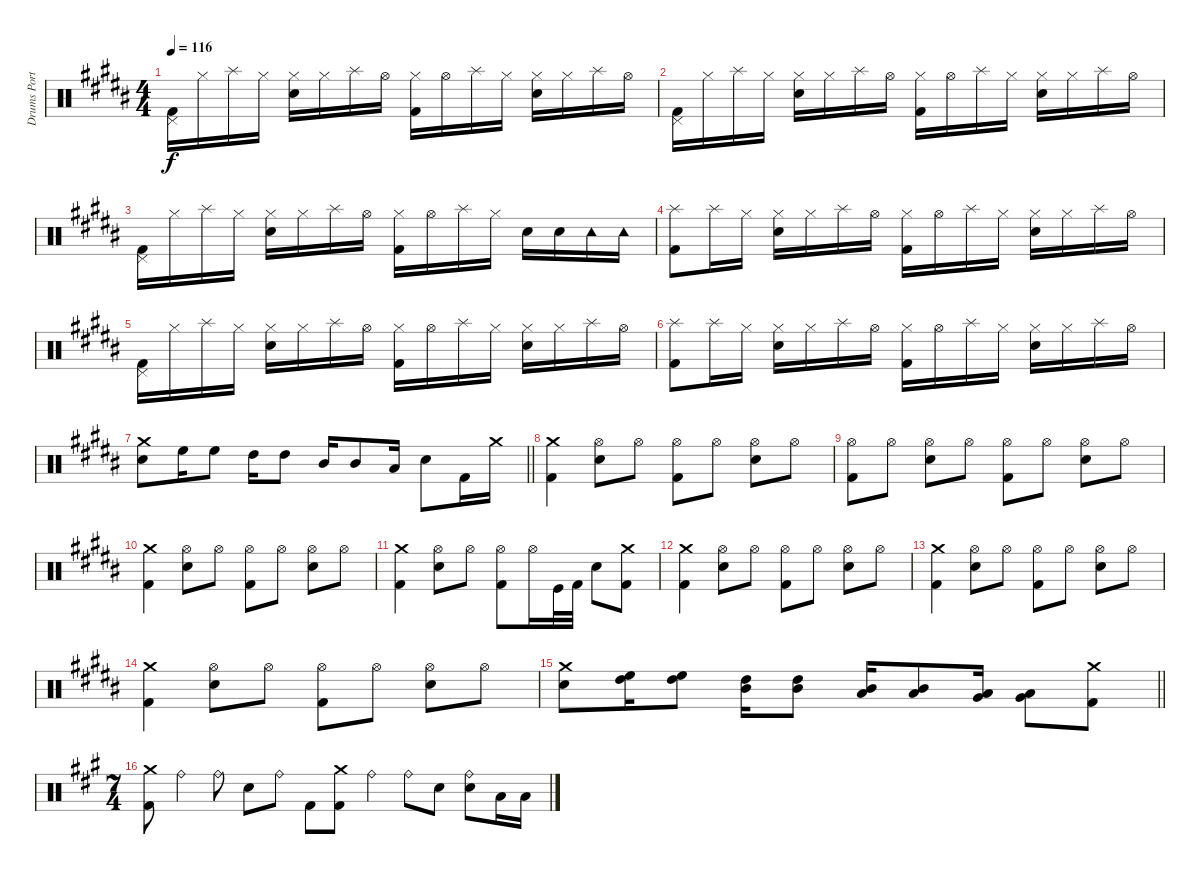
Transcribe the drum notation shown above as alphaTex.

\track ("Drums Portnoy" "Drums Port") {instrument percussion}
\staff {score}
\articulation defaults
\ts (4 4)
\tempo 116
\clef neutral
\ks g#minor
("Pedal Hi-Hat (hit)" "Kick (hit) 2").16{dy f} "Hi-Hat (closed)".16 "Splash (hit)".16 "Hi-Hat (closed)".16 ("Hi-Hat (closed)" "Snare (hit) 2").16 "Hi-Hat (closed)".16 "Splash (hit)".16 "Hi-Hat (open)".16 ("Hi-Hat (closed)" "Kick (hit) 2").16 "Hi-Hat (open)".16 "Splash (hit)".16 "Hi-Hat (closed)".16 ("Hi-Hat (closed)" "Snare (hit) 2").16 "Hi-Hat (closed)".16 "Splash (hit)".16 "Hi-Hat (open)".16 |
\ks b
("Pedal Hi-Hat (hit)" "Kick (hit) 2").16 "Hi-Hat (closed)".16 "Splash (hit)".16 "Hi-Hat (closed)".16 ("Hi-Hat (closed)" "Snare (hit) 2").16 "Hi-Hat (closed)".16 "Splash (hit)".16 "Hi-Hat (open)".16 ("Hi-Hat (closed)" "Kick (hit) 2").16 "Hi-Hat (open)".16 "Splash (hit)".16 "Hi-Hat (closed)".16 ("Hi-Hat (closed)" "Snare (hit) 2").16 "Hi-Hat (closed)".16 "Splash (hit)".16 "Hi-Hat (open)".16 |
\ks g#minor
("Pedal Hi-Hat (hit)" "Kick (hit) 2").16 "Hi-Hat (closed)".16 "Splash (hit)".16 "Hi-Hat (closed)".16 ("Hi-Hat (closed)" "Snare (hit) 2").16 "Hi-Hat (closed)".16 "Splash (hit)".16 "Hi-Hat (open)".16 ("Hi-Hat (closed)" "Kick (hit) 2").16 "Hi-Hat (open)".16 "Splash (hit)".16 "Hi-Hat (closed)".16 "Snare (hit) 2".16 "Snare (hit) 2".16 "Tambourine (hit)".16 "Tambourine (hit)".16 |
("Splash (hit)" "Kick (hit) 2").8 "Splash (hit)".16 "Hi-Hat (closed)".16 ("Hi-Hat (closed)" "Snare (hit) 2").16 "Hi-Hat (closed)".16 "Splash (hit)".16 "Hi-Hat (open)".16 ("Hi-Hat (closed)" "Kick (hit) 2").16 "Hi-Hat (open)".16 "Splash (hit)".16 "Hi-Hat (closed)".16 ("Hi-Hat (closed)" "Snare (hit) 2").16 "Hi-Hat (closed)".16 "Splash (hit)".16 "Hi-Hat (open)".16 |
("Pedal Hi-Hat (hit)" "Kick (hit) 2").16 "Hi-Hat (closed)".16 "Splash (hit)".16 "Hi-Hat (closed)".16 ("Hi-Hat (closed)" "Snare (hit) 2").16 "Hi-Hat (closed)".16 "Splash (hit)".16 "Hi-Hat (open)".16 ("Hi-Hat (closed)" "Kick (hit) 2").16 "Hi-Hat (open)".16 "Splash (hit)".16 "Hi-Hat (closed)".16 ("Hi-Hat (closed)" "Snare (hit) 2").16 "Hi-Hat (closed)".16 "Splash (hit)".16 "Hi-Hat (open)".16 |
("Splash (hit)" "Kick (hit) 2").8 "Splash (hit)".16 "Hi-Hat (closed)".16 ("Hi-Hat (closed)" "Snare (hit) 2").16 "Hi-Hat (closed)".16 "Splash (hit)".16 "Hi-Hat (open)".16 ("Hi-Hat (closed)" "Kick (hit) 2").16 "Hi-Hat (open)".16 "Splash (hit)".16 "Hi-Hat (closed)".16 ("Hi-Hat (closed)" "Snare (hit) 2").16 "Hi-Hat (closed)".16 "Splash (hit)".16 "Hi-Hat (open)".16 |
\barLineRight lightlight
("Crash medium (hit)" "Snare (hit) 2").8 "High Floor Tom (hit)".16 "High Floor Tom (hit)".8 "High Tom (hit)".16 "High Tom (hit)".8 "Mid Tom (hit)".16 "Mid Tom (hit)".8 "Low Tom (hit)".16 "Snare (hit) 2".8 "Kick (hit) 2".16 "Crash medium (hit)".16 |
("Crash medium (hit)" "Kick (hit) 2").4 ("Hi-Hat (open)" "Snare (hit) 2").8 "Hi-Hat (open)".8 ("Hi-Hat (open)" "Kick (hit) 2").8 "Hi-Hat (open)".8 ("Hi-Hat (open)" "Snare (hit) 2").8 "Hi-Hat (open)".8 |
("Hi-Hat (open)" "Kick (hit) 2").8 "Hi-Hat (open)".8 ("Hi-Hat (open)" "Snare (hit) 2").8 "Hi-Hat (open)".8 ("Hi-Hat (open)" "Kick (hit) 2").8 "Hi-Hat (open)".8 ("Hi-Hat (open)" "Snare (hit) 2").8 "Hi-Hat (open)".8 |
("Crash medium (hit)" "Kick (hit) 2").4 ("Hi-Hat (open)" "Snare (hit) 2").8 "Hi-Hat (open)".8 ("Hi-Hat (open)" "Kick (hit) 2").8 "Hi-Hat (open)".8 ("Hi-Hat (open)" "Snare (hit) 2").8 "Hi-Hat (open)".8 |
("Crash medium (hit)" "Kick (hit) 2").4 ("Hi-Hat (open)" "Snare (hit) 2").8 "Hi-Hat (open)".8 ("Hi-Hat (open)" "Kick (hit) 2").8 "Hi-Hat (open)".16 "Kick (hit)".32 "Kick (hit) 2".32 "Snare (hit) 2".8 ("Crash medium (hit)" "Kick (hit) 2").8 |
\ks b
("Crash medium (hit)" "Kick (hit) 2").4 ("Hi-Hat (open)" "Snare (hit) 2").8 "Hi-Hat (open)".8 ("Hi-Hat (open)" "Kick (hit) 2").8 "Hi-Hat (open)".8 ("Hi-Hat (open)" "Snare (hit) 2").8 "Hi-Hat (open)".8 |
\ks g#minor
("Crash medium (hit)" "Kick (hit) 2").4 ("Hi-Hat (open)" "Snare (hit) 2").8 "Hi-Hat (open)".8 ("Hi-Hat (open)" "Kick (hit) 2").8 "Hi-Hat (open)".8 ("Hi-Hat (open)" "Snare (hit) 2").8 "Hi-Hat (open)".8 |
("Crash medium (hit)" "Kick (hit) 2").4 ("Hi-Hat (open)" "Snare (hit) 2").8 "Hi-Hat (open)".8 ("Hi-Hat (open)" "Kick (hit) 2").8 "Hi-Hat (open)".8 ("Hi-Hat (open)" "Snare (hit) 2").8 "Hi-Hat (open)".8 |
\barLineRight lightlight
("Crash medium (hit)" "Snare (hit) 2").8 ("High Tom (hit)" "High Floor Tom (hit)").16 ("High Tom (hit)" "High Floor Tom (hit)").8 ("Mid Tom (hit)" "High Tom (hit)").16 ("Mid Tom (hit)" "High Tom (hit)").8 ("Low Tom (hit)" "Mid Tom (hit)").16 ("Low Tom (hit)" "Mid Tom (hit)").8 ("Very Low Tom (hit)" "Low Tom (hit)").16 ("Very Low Tom (hit)" "Low Tom (hit)").8 ("Crash medium (hit)" "Kick (hit) 2").8 |
\ts (7 4)
\ks a
("Crash medium (hit)" "Kick (hit) 2").8 "Ride (bell)".4 "Ride (bell)".8 "Snare (hit) 2".8 "Ride (bell)".8 "Kick (hit) 2".8 ("Crash medium (hit)" "Kick (hit) 2").8 "Ride (bell)".4 "Ride (bell)".8 "Snare (hit) 2".8 ("Ride (bell)" "Snare (hit) 2").8 "Low Tom (hit)".16 "Low Tom (hit)".16
